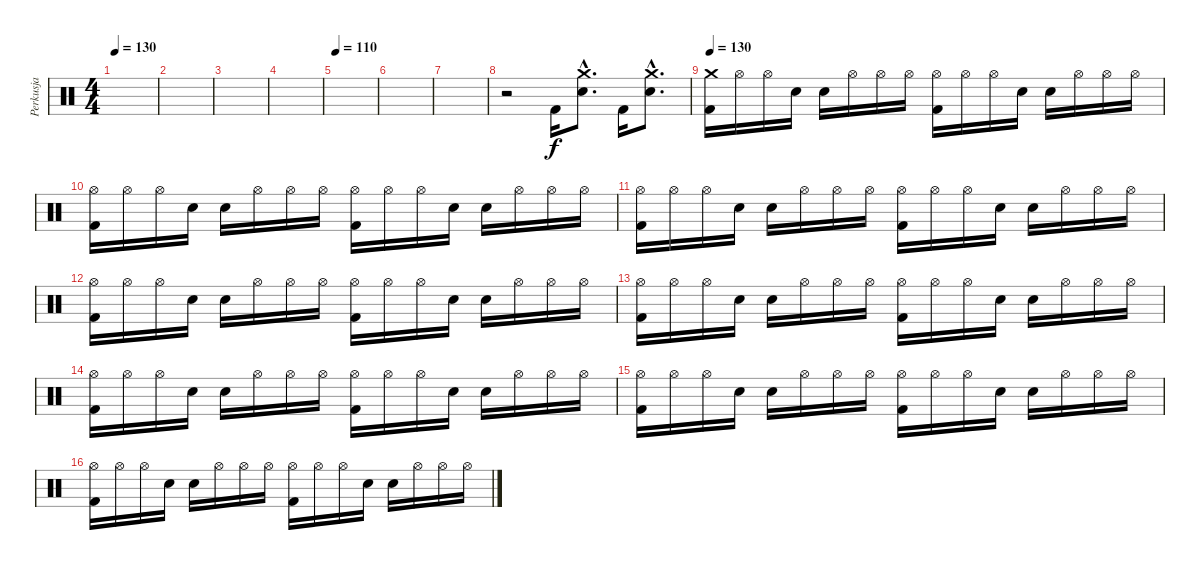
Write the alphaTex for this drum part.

\track ("Perkusja" "Perkusja") {instrument percussion}
\staff {score}
\articulation defaults
\ts (4 4)
\tempo 130
\clef neutral
\ks c
|
|
|
|
\tempo 110
|
|
|
r.2 "Kick (hit) 2".16 ("Crash medium (hit)"{hac} "Electric Snare (hit)"{hac}).8{d} "Kick (hit) 2".16 ("Crash medium (hit)"{hac} "Electric Snare (hit)"{hac}).8{d} |
\tempo 130
("Crash medium (hit)" "Kick (hit) 2").16 "Hi-Hat (open)".16 "Hi-Hat (open)".16 "Electric Snare (hit)".16 "Electric Snare (hit)".16 "Hi-Hat (open)".16 "Hi-Hat (open)".16 "Hi-Hat (open)".16 ("Hi-Hat (open)" "Kick (hit) 2").16 "Hi-Hat (open)".16 "Hi-Hat (open)".16 "Electric Snare (hit)".16 "Electric Snare (hit)".16 "Hi-Hat (open)".16 "Hi-Hat (open)".16 "Hi-Hat (open)".16 |
("Hi-Hat (open)" "Kick (hit) 2").16 "Hi-Hat (open)".16 "Hi-Hat (open)".16 "Electric Snare (hit)".16 "Electric Snare (hit)".16 "Hi-Hat (open)".16 "Hi-Hat (open)".16 "Hi-Hat (open)".16 ("Hi-Hat (open)" "Kick (hit) 2").16 "Hi-Hat (open)".16 "Hi-Hat (open)".16 "Electric Snare (hit)".16 "Electric Snare (hit)".16 "Hi-Hat (open)".16 "Hi-Hat (open)".16 "Hi-Hat (open)".16 |
("Hi-Hat (open)" "Kick (hit) 2").16 "Hi-Hat (open)".16 "Hi-Hat (open)".16 "Electric Snare (hit)".16 "Electric Snare (hit)".16 "Hi-Hat (open)".16 "Hi-Hat (open)".16 "Hi-Hat (open)".16 ("Hi-Hat (open)" "Kick (hit) 2").16 "Hi-Hat (open)".16 "Hi-Hat (open)".16 "Electric Snare (hit)".16 "Electric Snare (hit)".16 "Hi-Hat (open)".16 "Hi-Hat (open)".16 "Hi-Hat (open)".16 |
("Hi-Hat (open)" "Kick (hit) 2").16 "Hi-Hat (open)".16 "Hi-Hat (open)".16 "Electric Snare (hit)".16 "Electric Snare (hit)".16 "Hi-Hat (open)".16 "Hi-Hat (open)".16 "Hi-Hat (open)".16 ("Hi-Hat (open)" "Kick (hit) 2").16 "Hi-Hat (open)".16 "Hi-Hat (open)".16 "Electric Snare (hit)".16 "Electric Snare (hit)".16 "Hi-Hat (open)".16 "Hi-Hat (open)".16 "Hi-Hat (open)".16 |
("Hi-Hat (open)" "Kick (hit) 2").16 "Hi-Hat (open)".16 "Hi-Hat (open)".16 "Electric Snare (hit)".16 "Electric Snare (hit)".16 "Hi-Hat (open)".16 "Hi-Hat (open)".16 "Hi-Hat (open)".16 ("Hi-Hat (open)" "Kick (hit) 2").16 "Hi-Hat (open)".16 "Hi-Hat (open)".16 "Electric Snare (hit)".16 "Electric Snare (hit)".16 "Hi-Hat (open)".16 "Hi-Hat (open)".16 "Hi-Hat (open)".16 |
("Hi-Hat (open)" "Kick (hit) 2").16 "Hi-Hat (open)".16 "Hi-Hat (open)".16 "Electric Snare (hit)".16 "Electric Snare (hit)".16 "Hi-Hat (open)".16 "Hi-Hat (open)".16 "Hi-Hat (open)".16 ("Hi-Hat (open)" "Kick (hit) 2").16 "Hi-Hat (open)".16 "Hi-Hat (open)".16 "Electric Snare (hit)".16 "Electric Snare (hit)".16 "Hi-Hat (open)".16 "Hi-Hat (open)".16 "Hi-Hat (open)".16 |
("Hi-Hat (open)" "Kick (hit) 2").16 "Hi-Hat (open)".16 "Hi-Hat (open)".16 "Electric Snare (hit)".16 "Electric Snare (hit)".16 "Hi-Hat (open)".16 "Hi-Hat (open)".16 "Hi-Hat (open)".16 ("Hi-Hat (open)" "Kick (hit) 2").16 "Hi-Hat (open)".16 "Hi-Hat (open)".16 "Electric Snare (hit)".16 "Electric Snare (hit)".16 "Hi-Hat (open)".16 "Hi-Hat (open)".16 "Hi-Hat (open)".16 |
("Hi-Hat (open)" "Kick (hit) 2").16 "Hi-Hat (open)".16 "Hi-Hat (open)".16 "Electric Snare (hit)".16 "Electric Snare (hit)".16 "Hi-Hat (open)".16 "Hi-Hat (open)".16 "Hi-Hat (open)".16 ("Hi-Hat (open)" "Kick (hit) 2").16 "Hi-Hat (open)".16 "Hi-Hat (open)".16 "Electric Snare (hit)".16 "Electric Snare (hit)".16 "Hi-Hat (open)".16 "Hi-Hat (open)".16 "Hi-Hat (open)".16
